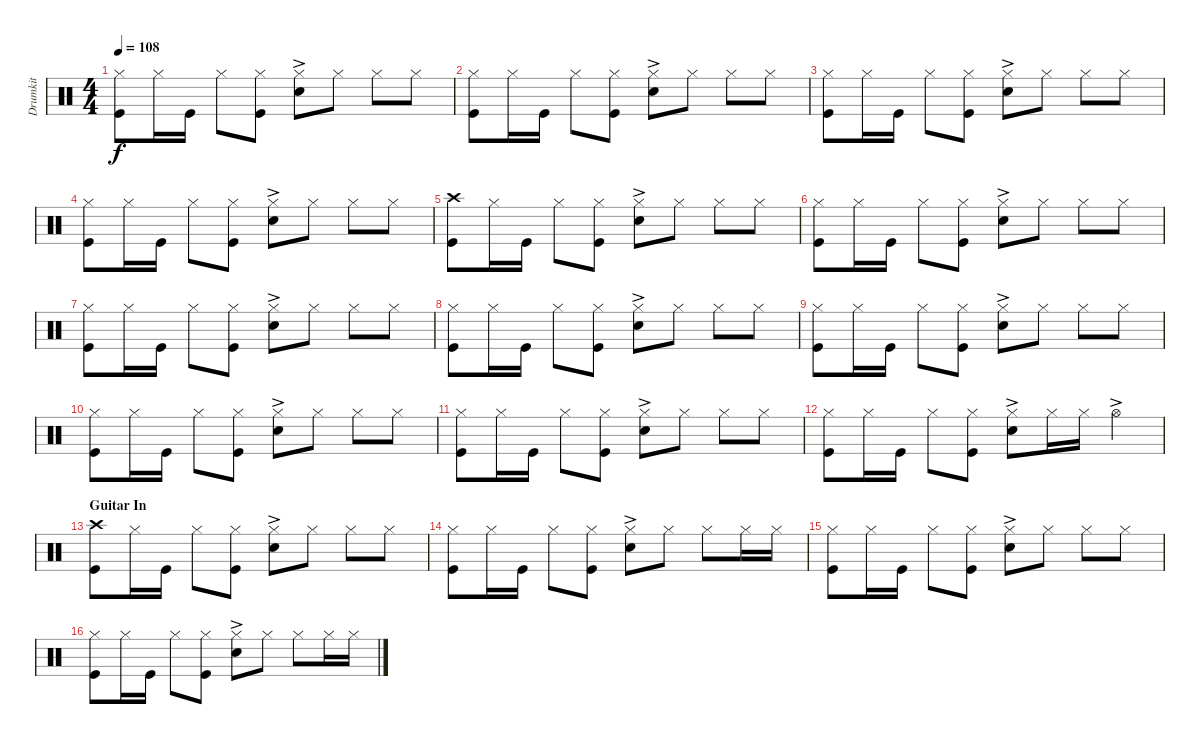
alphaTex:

\track ("Drumkit" "Drumkit") {instrument percussion}
\staff {score}
\articulation defaults
\ts (4 4)
\tempo 108
\clef neutral
\ks c
("Hi-Hat (closed)" "Kick (hit)").8{dy f} "Hi-Hat (closed)".16 "Kick (hit)".16 "Hi-Hat (closed)".8 ("Kick (hit)" "Hi-Hat (closed)").8 ("Hi-Hat (closed)" "Snare (hit) 2"{ac}).8 "Hi-Hat (closed)".8 "Hi-Hat (closed)".8 "Hi-Hat (closed)".8 |
("Hi-Hat (closed)" "Kick (hit)").8 "Hi-Hat (closed)".16 "Kick (hit)".16 "Hi-Hat (closed)".8 ("Kick (hit)" "Hi-Hat (closed)").8 ("Hi-Hat (closed)" "Snare (hit) 2"{ac}).8 "Hi-Hat (closed)".8 "Hi-Hat (closed)".8 "Hi-Hat (closed)".8 |
("Hi-Hat (closed)" "Kick (hit)").8 "Hi-Hat (closed)".16 "Kick (hit)".16 "Hi-Hat (closed)".8 ("Kick (hit)" "Hi-Hat (closed)").8 ("Hi-Hat (closed)" "Snare (hit) 2"{ac}).8 "Hi-Hat (closed)".8 "Hi-Hat (closed)".8 "Hi-Hat (closed)".8 |
("Hi-Hat (closed)" "Kick (hit)").8 "Hi-Hat (closed)".16 "Kick (hit)".16 "Hi-Hat (closed)".8 ("Kick (hit)" "Hi-Hat (closed)").8 ("Hi-Hat (closed)" "Snare (hit) 2"{ac}).8 "Hi-Hat (closed)".8 "Hi-Hat (closed)".8 "Hi-Hat (closed)".8 |
("Kick (hit)" "Crash high (hit)").8 "Hi-Hat (closed)".16 "Kick (hit)".16 "Hi-Hat (closed)".8 ("Kick (hit)" "Hi-Hat (closed)").8 ("Hi-Hat (closed)" "Snare (hit) 2"{ac}).8 "Hi-Hat (closed)".8 "Hi-Hat (closed)".8 "Hi-Hat (closed)".8 |
("Hi-Hat (closed)" "Kick (hit)").8 "Hi-Hat (closed)".16 "Kick (hit)".16 "Hi-Hat (closed)".8 ("Kick (hit)" "Hi-Hat (closed)").8 ("Hi-Hat (closed)" "Snare (hit) 2"{ac}).8 "Hi-Hat (closed)".8 "Hi-Hat (closed)".8 "Hi-Hat (closed)".8 |
("Hi-Hat (closed)" "Kick (hit)").8 "Hi-Hat (closed)".16 "Kick (hit)".16 "Hi-Hat (closed)".8 ("Kick (hit)" "Hi-Hat (closed)").8 ("Hi-Hat (closed)" "Snare (hit) 2"{ac}).8 "Hi-Hat (closed)".8 "Hi-Hat (closed)".8 "Hi-Hat (closed)".8 |
("Hi-Hat (closed)" "Kick (hit)").8 "Hi-Hat (closed)".16 "Kick (hit)".16 "Hi-Hat (closed)".8 ("Kick (hit)" "Hi-Hat (closed)").8 ("Hi-Hat (closed)" "Snare (hit) 2"{ac}).8 "Hi-Hat (closed)".8 "Hi-Hat (closed)".8 "Hi-Hat (closed)".8 |
("Hi-Hat (closed)" "Kick (hit)").8 "Hi-Hat (closed)".16 "Kick (hit)".16 "Hi-Hat (closed)".8 ("Kick (hit)" "Hi-Hat (closed)").8 ("Hi-Hat (closed)" "Snare (hit) 2"{ac}).8 "Hi-Hat (closed)".8 "Hi-Hat (closed)".8 "Hi-Hat (closed)".8 |
("Hi-Hat (closed)" "Kick (hit)").8 "Hi-Hat (closed)".16 "Kick (hit)".16 "Hi-Hat (closed)".8 ("Kick (hit)" "Hi-Hat (closed)").8 ("Hi-Hat (closed)" "Snare (hit) 2"{ac}).8 "Hi-Hat (closed)".8 "Hi-Hat (closed)".8 "Hi-Hat (closed)".8 |
("Hi-Hat (closed)" "Kick (hit)").8 "Hi-Hat (closed)".16 "Kick (hit)".16 "Hi-Hat (closed)".8 ("Kick (hit)" "Hi-Hat (closed)").8 ("Hi-Hat (closed)" "Snare (hit) 2"{ac}).8 "Hi-Hat (closed)".8 "Hi-Hat (closed)".8 "Hi-Hat (closed)".8 |
("Hi-Hat (closed)" "Kick (hit)").8 "Hi-Hat (closed)".16 "Kick (hit)".16 "Hi-Hat (closed)".8 ("Kick (hit)" "Hi-Hat (closed)").8 ("Hi-Hat (closed)" "Snare (hit) 2"{ac}).8 "Hi-Hat (closed)".16 "Hi-Hat (closed)".16 "Hi-Hat (open)"{ac}.4 |
\section ("" "Guitar In")
("Kick (hit)" "Crash high (hit)").8 "Hi-Hat (closed)".16 "Kick (hit)".16 "Hi-Hat (closed)".8 ("Kick (hit)" "Hi-Hat (closed)").8 ("Hi-Hat (closed)" "Snare (hit) 2"{ac}).8 "Hi-Hat (closed)".8 "Hi-Hat (closed)".8 "Hi-Hat (closed)".8 |
("Hi-Hat (closed)" "Kick (hit)").8 "Hi-Hat (closed)".16 "Kick (hit)".16 "Hi-Hat (closed)".8 ("Kick (hit)" "Hi-Hat (closed)").8 ("Hi-Hat (closed)" "Snare (hit) 2"{ac}).8 "Hi-Hat (closed)".8 "Hi-Hat (closed)".8 "Hi-Hat (closed)".16 "Hi-Hat (closed)".16 |
("Kick (hit)" "Hi-Hat (closed)").8 "Hi-Hat (closed)".16 "Kick (hit)".16 "Hi-Hat (closed)".8 ("Kick (hit)" "Hi-Hat (closed)").8 ("Hi-Hat (closed)" "Snare (hit) 2"{ac}).8 "Hi-Hat (closed)".8 "Hi-Hat (closed)".8 "Hi-Hat (closed)".8 |
("Hi-Hat (closed)" "Kick (hit)").8 "Hi-Hat (closed)".16 "Kick (hit)".16 "Hi-Hat (closed)".8 ("Kick (hit)" "Hi-Hat (closed)").8 ("Hi-Hat (closed)" "Snare (hit) 2"{ac}).8 "Hi-Hat (closed)".8 "Hi-Hat (closed)".8 "Hi-Hat (closed)".16 "Hi-Hat (closed)".16
